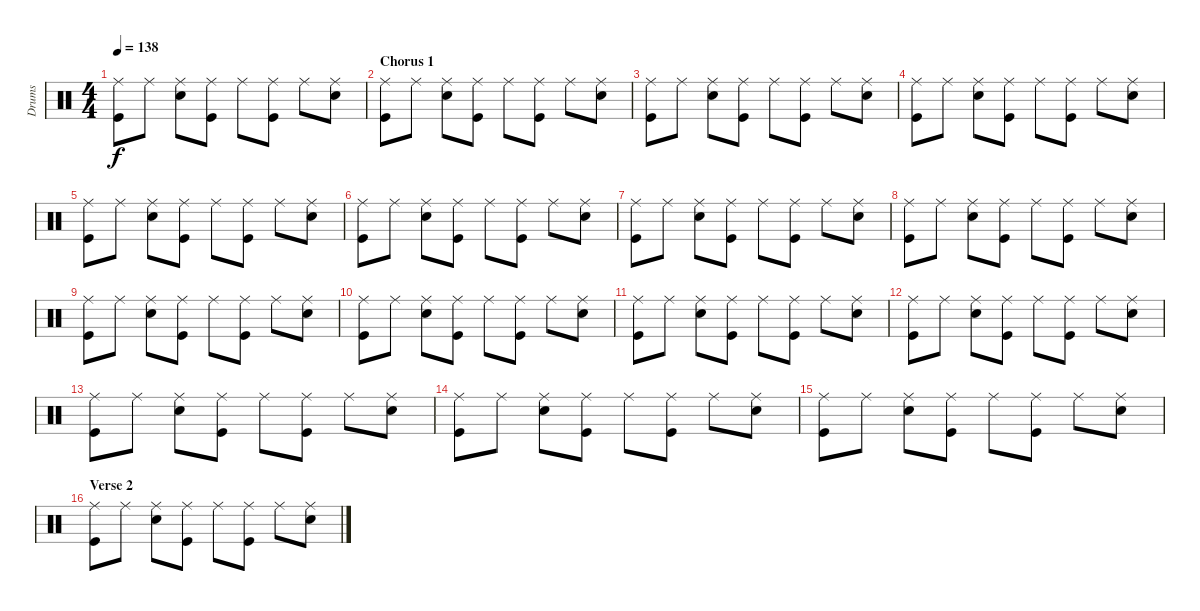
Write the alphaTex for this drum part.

\track ("Drums" "Drums") {instrument percussion}
\staff {score}
\articulation defaults
\ts (4 4)
\tempo 138
\clef neutral
\ks c
("Ride (middle)" "Kick (hit)").8{dy f} "Ride (middle)".8 ("Ride (middle)" "Snare (hit) 2").8 ("Ride (middle)" "Kick (hit)").8 "Ride (middle)".8 ("Ride (middle)" "Kick (hit)").8 "Ride (middle)".8 ("Ride (middle)" "Snare (hit) 2").8 |
\section ("" "Chorus 1")
("Ride (middle)" "Kick (hit)").8 "Ride (middle)".8 ("Ride (middle)" "Snare (hit) 2").8 ("Ride (middle)" "Kick (hit)").8 "Ride (middle)".8 ("Ride (middle)" "Kick (hit)").8 "Ride (middle)".8 ("Ride (middle)" "Snare (hit) 2").8 |
("Ride (middle)" "Kick (hit)").8 "Ride (middle)".8 ("Ride (middle)" "Snare (hit) 2").8 ("Ride (middle)" "Kick (hit)").8 "Ride (middle)".8 ("Ride (middle)" "Kick (hit)").8 "Ride (middle)".8 ("Ride (middle)" "Snare (hit) 2").8 |
("Ride (middle)" "Kick (hit)").8 "Ride (middle)".8 ("Ride (middle)" "Snare (hit) 2").8 ("Ride (middle)" "Kick (hit)").8 "Ride (middle)".8 ("Ride (middle)" "Kick (hit)").8 "Ride (middle)".8 ("Ride (middle)" "Snare (hit) 2").8 |
("Ride (middle)" "Kick (hit)").8 "Ride (middle)".8 ("Ride (middle)" "Snare (hit) 2").8 ("Ride (middle)" "Kick (hit)").8 "Ride (middle)".8 ("Ride (middle)" "Kick (hit)").8 "Ride (middle)".8 ("Ride (middle)" "Snare (hit) 2").8 |
("Ride (middle)" "Kick (hit)").8 "Ride (middle)".8 ("Ride (middle)" "Snare (hit) 2").8 ("Ride (middle)" "Kick (hit)").8 "Ride (middle)".8 ("Ride (middle)" "Kick (hit)").8 "Ride (middle)".8 ("Ride (middle)" "Snare (hit) 2").8 |
("Ride (middle)" "Kick (hit)").8 "Ride (middle)".8 ("Ride (middle)" "Snare (hit) 2").8 ("Ride (middle)" "Kick (hit)").8 "Ride (middle)".8 ("Ride (middle)" "Kick (hit)").8 "Ride (middle)".8 ("Ride (middle)" "Snare (hit) 2").8 |
("Ride (middle)" "Kick (hit)").8 "Ride (middle)".8 ("Ride (middle)" "Snare (hit) 2").8 ("Ride (middle)" "Kick (hit)").8 "Ride (middle)".8 ("Ride (middle)" "Kick (hit)").8 "Ride (middle)".8 ("Ride (middle)" "Snare (hit) 2").8 |
("Ride (middle)" "Kick (hit)").8 "Ride (middle)".8 ("Ride (middle)" "Snare (hit) 2").8 ("Ride (middle)" "Kick (hit)").8 "Ride (middle)".8 ("Ride (middle)" "Kick (hit)").8 "Ride (middle)".8 ("Ride (middle)" "Snare (hit) 2").8 |
("Ride (middle)" "Kick (hit)").8 "Ride (middle)".8 ("Ride (middle)" "Snare (hit) 2").8 ("Ride (middle)" "Kick (hit)").8 "Ride (middle)".8 ("Ride (middle)" "Kick (hit)").8 "Ride (middle)".8 ("Ride (middle)" "Snare (hit) 2").8 |
("Ride (middle)" "Kick (hit)").8 "Ride (middle)".8 ("Ride (middle)" "Snare (hit) 2").8 ("Ride (middle)" "Kick (hit)").8 "Ride (middle)".8 ("Ride (middle)" "Kick (hit)").8 "Ride (middle)".8 ("Ride (middle)" "Snare (hit) 2").8 |
("Ride (middle)" "Kick (hit)").8 "Ride (middle)".8 ("Ride (middle)" "Snare (hit) 2").8 ("Ride (middle)" "Kick (hit)").8 "Ride (middle)".8 ("Ride (middle)" "Kick (hit)").8 "Ride (middle)".8 ("Ride (middle)" "Snare (hit) 2").8 |
("Ride (middle)" "Kick (hit)").8 "Ride (middle)".8 ("Ride (middle)" "Snare (hit) 2").8 ("Ride (middle)" "Kick (hit)").8 "Ride (middle)".8 ("Ride (middle)" "Kick (hit)").8 "Ride (middle)".8 ("Ride (middle)" "Snare (hit) 2").8 |
("Ride (middle)" "Kick (hit)").8 "Ride (middle)".8 ("Ride (middle)" "Snare (hit) 2").8 ("Ride (middle)" "Kick (hit)").8 "Ride (middle)".8 ("Ride (middle)" "Kick (hit)").8 "Ride (middle)".8 ("Ride (middle)" "Snare (hit) 2").8 |
("Ride (middle)" "Kick (hit)").8 "Ride (middle)".8 ("Ride (middle)" "Snare (hit) 2").8 ("Ride (middle)" "Kick (hit)").8 "Ride (middle)".8 ("Ride (middle)" "Kick (hit)").8 "Ride (middle)".8 ("Ride (middle)" "Snare (hit) 2").8 |
\section ("" "Verse 2")
("Ride (middle)" "Kick (hit)").8 "Ride (middle)".8 ("Ride (middle)" "Snare (hit) 2").8 ("Ride (middle)" "Kick (hit)").8 "Ride (middle)".8 ("Ride (middle)" "Kick (hit)").8 "Ride (middle)".8 ("Ride (middle)" "Snare (hit) 2").8
